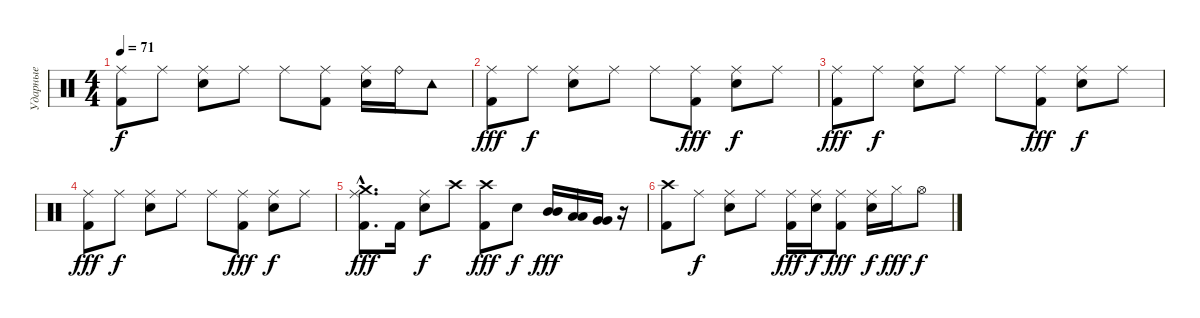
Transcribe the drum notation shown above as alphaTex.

\track ("Ударные" "Ударные") {instrument percussion}
\staff {score}
\articulation defaults
\ts (4 4)
\tempo 71
\clef neutral
\ks c
("Ride (middle)" "Kick (hit) 2").8{dy f} "Ride (middle)".8 ("Ride (middle)" "Electric Snare (hit)").8 "Ride (middle)".8 "Ride (middle)".8 ("Ride (middle)" "Kick (hit) 2").8 ("Ride (middle)" "Electric Snare (hit)").16 "Ride (bell)".16 "Tambourine (hit)".8 |
("Ride (middle)" "Kick (hit) 2").8{dy fff} "Ride (middle)".8{dy f} ("Ride (middle)" "Electric Snare (hit)").8 "Ride (middle)".8 "Ride (middle)".8 ("Ride (middle)" "Kick (hit) 2").8{dy fff} ("Ride (middle)" "Electric Snare (hit)").8{dy f} "Ride (middle)".8 |
("Ride (middle)" "Kick (hit) 2").8{dy fff} "Ride (middle)".8{dy f} ("Ride (middle)" "Electric Snare (hit)").8 "Ride (middle)".8 "Ride (middle)".8 ("Ride (middle)" "Kick (hit) 2").8{dy fff} ("Ride (middle)" "Electric Snare (hit)").8{dy f} "Ride (middle)".8 |
("Ride (middle)" "Kick (hit) 2").8{dy fff} "Ride (middle)".8{dy f} ("Ride (middle)" "Electric Snare (hit)").8 "Ride (middle)".8 "Ride (middle)".8 ("Ride (middle)" "Kick (hit) 2").8{dy fff} ("Ride (middle)" "Electric Snare (hit)").8{dy f} "Ride (middle)".8 |
("Ride (middle)"{hac} "Crash medium (hit)"{hac} "Kick (hit) 2"{hac}).8{d dy fff} "Kick (hit) 2".16 ("Ride (middle)" "Electric Snare (hit)").8{dy f} "Crash high (hit)".8 ("Kick (hit) 2" "Crash high (hit)").8{dy fff} "Electric Snare (hit)".8{dy f} ("Mid Tom (hit)" "Mid Tom (hit)").16{dy fff} ("Low Tom (hit)" "Low Tom (hit)").16 ("Very Low Tom (hit)" "Very Low Tom (hit)").16 r.16 |
("Crash high (hit)" "Kick (hit) 2").8 "Ride (middle)".8{dy f} ("Ride (middle)" "Electric Snare (hit)").8 "Ride (middle)".8 ("Ride (middle)" "Kick (hit) 2").16{dy fff} ("Ride (middle)" "Electric Snare (hit)").16{dy f} ("Ride (middle)" "Kick (hit) 2").8{dy fff} ("Ride (middle)" "Electric Snare (hit)").16{dy f} "Hi-Hat (closed)".16{dy fff} "Hi-Hat (open)".8{dy f}
